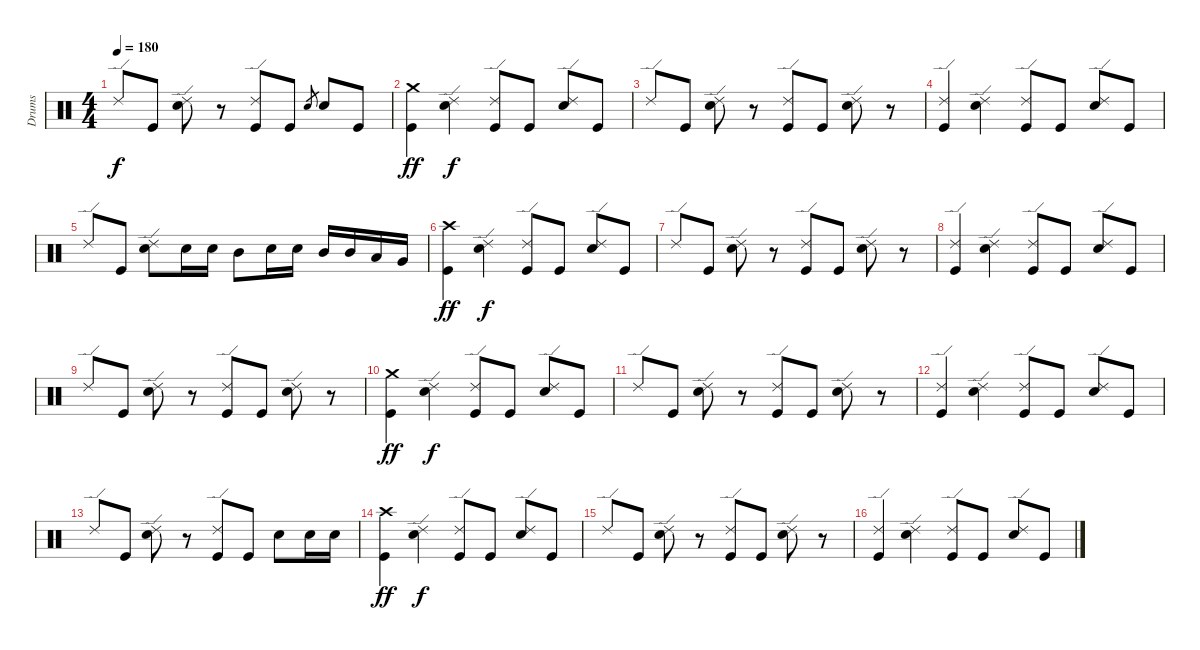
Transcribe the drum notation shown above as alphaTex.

\track ("Drums" "Drums") {instrument percussion}
\staff {score}
\articulation defaults
\ts (4 4)
\tempo 180
\clef neutral
\ks c "Ride (edge) 2".8{dy f} "Kick (hit)".8
("Ride (edge) 2" "Snare (hit) 2").8 r.8 ("Ride (edge) 2" "Kick (hit)").8 "Kick (hit)".8 "Snare (hit) 2".8{gr} "Snare (hit) 2".8 "Kick (hit)".8 |
("Crash medium (hit)" "Kick (hit)").4{dy ff} ("Ride (edge) 2" "Snare (hit) 2").4{dy f} ("Ride (edge) 2" "Kick (hit)").8 "Kick (hit)".8 ("Ride (edge) 2" "Snare (hit) 2").8 "Kick (hit)".8 |
"Ride (edge) 2".8 "Kick (hit)".8 ("Ride (edge) 2" "Snare (hit) 2").8 r.8 ("Ride (edge) 2" "Kick (hit)").8 "Kick (hit)".8 ("Ride (edge) 2" "Snare (hit) 2").8 r.8 |
("Ride (edge) 2" "Kick (hit)").4 ("Ride (edge) 2" "Snare (hit) 2").4 ("Ride (edge) 2" "Kick (hit)").8 "Kick (hit)".8 ("Ride (edge) 2" "Snare (hit) 2").8 "Kick (hit)".8 |
"Ride (edge) 2".8 "Kick (hit)".8 ("Ride (edge) 2" "Snare (hit) 2").8 "Snare (hit) 2".16 "Snare (hit) 2".16 "Mid Tom (hit)".8 "Snare (hit) 2".16 "Snare (hit) 2".16 "Mid Tom (hit)".16 "Mid Tom (hit)".16 "Low Tom (hit)".16 "Very Low Tom (hit)".16 |
("Crash high (hit)" "Kick (hit)").4{dy ff} ("Ride (edge) 2" "Snare (hit) 2").4{dy f} ("Ride (edge) 2" "Kick (hit)").8 "Kick (hit)".8 ("Ride (edge) 2" "Snare (hit) 2").8 "Kick (hit)".8 |
"Ride (edge) 2".8 "Kick (hit)".8 ("Ride (edge) 2" "Snare (hit) 2").8 r.8 ("Ride (edge) 2" "Kick (hit)").8 "Kick (hit)".8 ("Ride (edge) 2" "Snare (hit) 2").8 r.8 |
("Ride (edge) 2" "Kick (hit)").4 ("Ride (edge) 2" "Snare (hit) 2").4 ("Ride (edge) 2" "Kick (hit)").8 "Kick (hit)".8 ("Ride (edge) 2" "Snare (hit) 2").8 "Kick (hit)".8 |
"Ride (edge) 2".8 "Kick (hit)".8 ("Ride (edge) 2" "Snare (hit) 2").8 r.8 ("Ride (edge) 2" "Kick (hit)").8 "Kick (hit)".8 ("Ride (edge) 2" "Snare (hit) 2").8 r.8 |
("Crash medium (hit)" "Kick (hit)").4{dy ff} ("Ride (edge) 2" "Snare (hit) 2").4{dy f} ("Ride (edge) 2" "Kick (hit)").8 "Kick (hit)".8 ("Ride (edge) 2" "Snare (hit) 2").8 "Kick (hit)".8 |
"Ride (edge) 2".8 "Kick (hit)".8 ("Ride (edge) 2" "Snare (hit) 2").8 r.8 ("Ride (edge) 2" "Kick (hit)").8 "Kick (hit)".8 ("Ride (edge) 2" "Snare (hit) 2").8 r.8 |
("Ride (edge) 2" "Kick (hit)").4 ("Ride (edge) 2" "Snare (hit) 2").4 ("Ride (edge) 2" "Kick (hit)").8 "Kick (hit)".8 ("Ride (edge) 2" "Snare (hit) 2").8 "Kick (hit)".8 |
"Ride (edge) 2".8 "Kick (hit)".8 ("Ride (edge) 2" "Snare (hit) 2").8 r.8 ("Ride (edge) 2" "Kick (hit)").8 "Kick (hit)".8 "Snare (hit) 2".8 "Snare (hit) 2".16 "Snare (hit) 2".16 |
("Crash high (hit)" "Kick (hit)").4{dy ff} ("Ride (edge) 2" "Snare (hit) 2").4{dy f} ("Ride (edge) 2" "Kick (hit)").8 "Kick (hit)".8 ("Ride (edge) 2" "Snare (hit) 2").8 "Kick (hit)".8 |
"Ride (edge) 2".8 "Kick (hit)".8 ("Ride (edge) 2" "Snare (hit) 2").8 r.8 ("Ride (edge) 2" "Kick (hit)").8 "Kick (hit)".8 ("Ride (edge) 2" "Snare (hit) 2").8 r.8 |
("Ride (edge) 2" "Kick (hit)").4 ("Ride (edge) 2" "Snare (hit) 2").4 ("Ride (edge) 2" "Kick (hit)").8 "Kick (hit)".8 ("Ride (edge) 2" "Snare (hit) 2").8 "Kick (hit)".8
